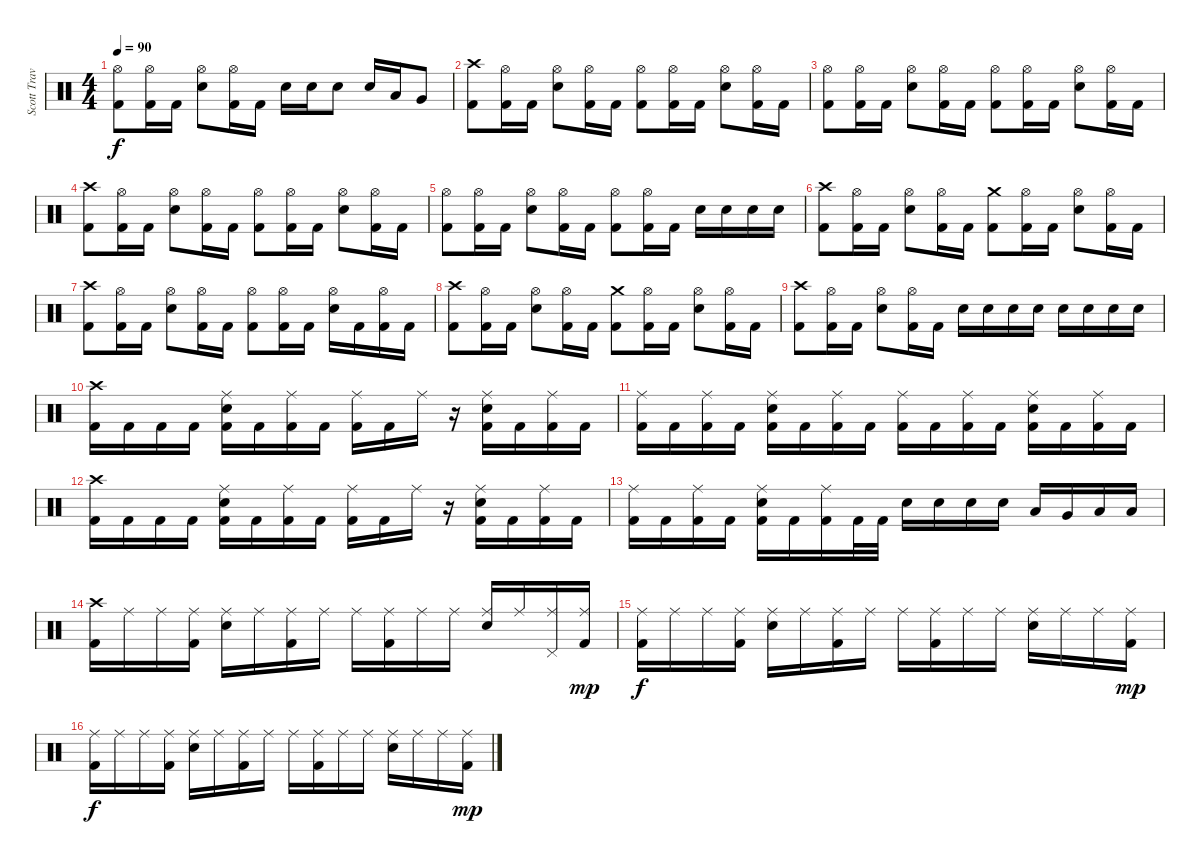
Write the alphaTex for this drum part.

\track ("Scott Travis" "Scott Trav") {instrument percussion}
\staff {score}
\articulation defaults
\ts (4 4)
\tempo 90
\clef neutral
\ks c
("Kick (hit) 2" "Hi-Hat (open)").8{dy f} ("Kick (hit) 2" "Hi-Hat (open)").16 "Kick (hit) 2".16 ("Electric Snare (hit)" "Hi-Hat (open)").8 ("Kick (hit) 2" "Hi-Hat (open)").16 "Kick (hit) 2".16 "Electric Snare (hit)".16 "Electric Snare (hit)".16 "Electric Snare (hit)".8 "Electric Snare (hit)".16 "Low Tom (hit)".16 "Very Low Tom (hit)".8 |
("Kick (hit) 2" "Crash high (hit)").8 ("Kick (hit) 2" "Hi-Hat (open)").16 "Kick (hit) 2".16 ("Electric Snare (hit)" "Hi-Hat (open)").8 ("Kick (hit) 2" "Hi-Hat (open)").16 "Kick (hit) 2".16 ("Kick (hit) 2" "Hi-Hat (open)").8 ("Kick (hit) 2" "Hi-Hat (open)").16 "Kick (hit) 2".16 ("Electric Snare (hit)" "Hi-Hat (open)").8 ("Kick (hit) 2" "Hi-Hat (open)").16 "Kick (hit) 2".16 |
("Kick (hit) 2" "Hi-Hat (open)").8 ("Kick (hit) 2" "Hi-Hat (open)").16 "Kick (hit) 2".16 ("Electric Snare (hit)" "Hi-Hat (open)").8 ("Kick (hit) 2" "Hi-Hat (open)").16 "Kick (hit) 2".16 ("Kick (hit) 2" "Hi-Hat (open)").8 ("Kick (hit) 2" "Hi-Hat (open)").16 "Kick (hit) 2".16 ("Electric Snare (hit)" "Hi-Hat (open)").8 ("Kick (hit) 2" "Hi-Hat (open)").16 "Kick (hit) 2".16 |
("Kick (hit) 2" "Crash high (hit)").8 ("Kick (hit) 2" "Hi-Hat (open)").16 "Kick (hit) 2".16 ("Electric Snare (hit)" "Hi-Hat (open)").8 ("Kick (hit) 2" "Hi-Hat (open)").16 "Kick (hit) 2".16 ("Kick (hit) 2" "Hi-Hat (open)").8 ("Kick (hit) 2" "Hi-Hat (open)").16 "Kick (hit) 2".16 ("Electric Snare (hit)" "Hi-Hat (open)").8 ("Kick (hit) 2" "Hi-Hat (open)").16 "Kick (hit) 2".16 |
("Kick (hit) 2" "Hi-Hat (open)").8 ("Kick (hit) 2" "Hi-Hat (open)").16 "Kick (hit) 2".16 ("Electric Snare (hit)" "Hi-Hat (open)").8 ("Kick (hit) 2" "Hi-Hat (open)").16 "Kick (hit) 2".16 ("Kick (hit) 2" "Hi-Hat (open)").8 ("Kick (hit) 2" "Hi-Hat (open)").16 "Kick (hit) 2".16 "Electric Snare (hit)".16 "Electric Snare (hit)".16 "Electric Snare (hit)".16 "Electric Snare (hit)".16 |
("Kick (hit) 2" "Crash high (hit)").8 ("Kick (hit) 2" "Hi-Hat (open)").16 "Kick (hit) 2".16 ("Electric Snare (hit)" "Hi-Hat (open)").8 ("Kick (hit) 2" "Hi-Hat (open)").16 "Kick (hit) 2".16 ("Kick (hit) 2" "Crash medium (hit)").8 ("Kick (hit) 2" "Hi-Hat (open)").16 "Kick (hit) 2".16 ("Electric Snare (hit)" "Hi-Hat (open)").8 ("Kick (hit) 2" "Hi-Hat (open)").16 "Kick (hit) 2".16 |
("Kick (hit) 2" "Crash high (hit)").8 ("Kick (hit) 2" "Hi-Hat (open)").16 "Kick (hit) 2".16 ("Electric Snare (hit)" "Hi-Hat (open)").8 ("Kick (hit) 2" "Hi-Hat (open)").16 "Kick (hit) 2".16 ("Kick (hit) 2" "Hi-Hat (open)").8 ("Kick (hit) 2" "Hi-Hat (open)").16 "Kick (hit) 2".16 ("Electric Snare (hit)" "Hi-Hat (open)").16 "Kick (hit) 2".16 ("Kick (hit) 2" "Hi-Hat (open)").16 "Kick (hit) 2".16 |
("Kick (hit) 2" "Crash high (hit)").8 ("Kick (hit) 2" "Hi-Hat (open)").16 "Kick (hit) 2".16 ("Electric Snare (hit)" "Hi-Hat (open)").8 ("Kick (hit) 2" "Hi-Hat (open)").16 "Kick (hit) 2".16 ("Kick (hit) 2" "Crash medium (hit)").8 ("Kick (hit) 2" "Hi-Hat (open)").16 "Kick (hit) 2".16 ("Electric Snare (hit)" "Hi-Hat (open)").8 ("Kick (hit) 2" "Hi-Hat (open)").16 "Kick (hit) 2".16 |
("Kick (hit) 2" "Crash high (hit)").8 ("Kick (hit) 2" "Hi-Hat (open)").16 "Kick (hit) 2".16 ("Electric Snare (hit)" "Hi-Hat (open)").8 ("Kick (hit) 2" "Hi-Hat (open)").16 "Kick (hit) 2".16 "Electric Snare (hit)".16 "Electric Snare (hit)".16 "Electric Snare (hit)".16 "Electric Snare (hit)".16 "Electric Snare (hit)".16 "Electric Snare (hit)".16 "Electric Snare (hit)".16 "Electric Snare (hit)".16 |
("Kick (hit) 2" "Crash high (hit)").16 "Kick (hit) 2".16 "Kick (hit) 2".16 "Kick (hit) 2".16 ("Kick (hit) 2" "Ride (middle)" "Electric Snare (hit)").16 "Kick (hit) 2".16 ("Kick (hit) 2" "Ride (middle)").16 "Kick (hit) 2".16 ("Kick (hit) 2" "Ride (middle)").16 "Kick (hit) 2".16 "Ride (middle)".16 r.16 ("Kick (hit) 2" "Electric Snare (hit)" "Ride (middle)").16 "Kick (hit) 2".16 ("Kick (hit) 2" "Ride (middle)").16 "Kick (hit) 2".16 |
("Kick (hit) 2" "Ride (middle)").16 "Kick (hit) 2".16 ("Kick (hit) 2" "Ride (middle)").16 "Kick (hit) 2".16 ("Kick (hit) 2" "Ride (middle)" "Electric Snare (hit)").16 "Kick (hit) 2".16 ("Kick (hit) 2" "Ride (middle)").16 "Kick (hit) 2".16 ("Kick (hit) 2" "Ride (middle)").16 "Kick (hit) 2".16 ("Kick (hit) 2" "Ride (middle)").16 "Kick (hit) 2".16 ("Kick (hit) 2" "Ride (middle)" "Electric Snare (hit)").16 "Kick (hit) 2".16 ("Kick (hit) 2" "Ride (middle)").16 "Kick (hit) 2".16 |
("Kick (hit) 2" "Crash high (hit)").16 "Kick (hit) 2".16 "Kick (hit) 2".16 "Kick (hit) 2".16 ("Kick (hit) 2" "Ride (middle)" "Electric Snare (hit)").16 "Kick (hit) 2".16 ("Kick (hit) 2" "Ride (middle)").16 "Kick (hit) 2".16 ("Kick (hit) 2" "Ride (middle)").16 "Kick (hit) 2".16 "Ride (middle)".16 r.16 ("Kick (hit) 2" "Electric Snare (hit)" "Ride (middle)").16 "Kick (hit) 2".16 ("Kick (hit) 2" "Ride (middle)").16 "Kick (hit) 2".16 |
("Kick (hit) 2" "Ride (middle)").16 "Kick (hit) 2".16 ("Kick (hit) 2" "Ride (middle)").16 "Kick (hit) 2".16 ("Kick (hit) 2" "Ride (middle)" "Electric Snare (hit)").16 "Kick (hit) 2".16 ("Kick (hit) 2" "Ride (middle)").16 "Kick (hit) 2".32 "Kick (hit) 2".32 "Electric Snare (hit)".16 "Electric Snare (hit)".16 "Electric Snare (hit)".16 "Electric Snare (hit)".16 "Low Tom (hit)".16 "Very Low Tom (hit)".16 "Low Floor Tom (hit)".16 "Low Floor Tom (hit)".16 |
("Kick (hit) 2" "Crash high (hit)").16 "Ride (middle)".16 "Ride (middle)".16 ("Ride (middle)" "Kick (hit) 2").16 ("Ride (middle)" "Electric Snare (hit)").16 "Ride (middle)".16 ("Ride (middle)" "Kick (hit) 2").16 "Ride (middle)".16 "Ride (middle)".16 ("Ride (middle)" "Kick (hit) 2").16 "Ride (middle)".16 "Ride (middle)".16 ("Ride (middle)" "Electric Snare (hit)").16 "Ride (middle)".16 ("Ride (middle)" "Pedal Hi-Hat (hit)").16 ("Ride (middle)" "Kick (hit) 2").16{dy mp} |
("Kick (hit) 2" "Ride (middle)").16{dy f} "Ride (middle)".16 "Ride (middle)".16 ("Ride (middle)" "Kick (hit) 2").16 ("Ride (middle)" "Electric Snare (hit)").16 "Ride (middle)".16 ("Ride (middle)" "Kick (hit) 2").16 "Ride (middle)".16 "Ride (middle)".16 ("Ride (middle)" "Kick (hit) 2").16 "Ride (middle)".16 "Ride (middle)".16 ("Ride (middle)" "Electric Snare (hit)").16 "Ride (middle)".16 "Ride (middle)".16 ("Ride (middle)" "Kick (hit) 2").16{dy mp} |
("Kick (hit) 2" "Ride (middle)").16{dy f} "Ride (middle)".16 "Ride (middle)".16 ("Ride (middle)" "Kick (hit) 2").16 ("Ride (middle)" "Electric Snare (hit)").16 "Ride (middle)".16 ("Ride (middle)" "Kick (hit) 2").16 "Ride (middle)".16 "Ride (middle)".16 ("Ride (middle)" "Kick (hit) 2").16 "Ride (middle)".16 "Ride (middle)".16 ("Ride (middle)" "Electric Snare (hit)").16 "Ride (middle)".16 "Ride (middle)".16 ("Ride (middle)" "Kick (hit) 2").16{dy mp}
